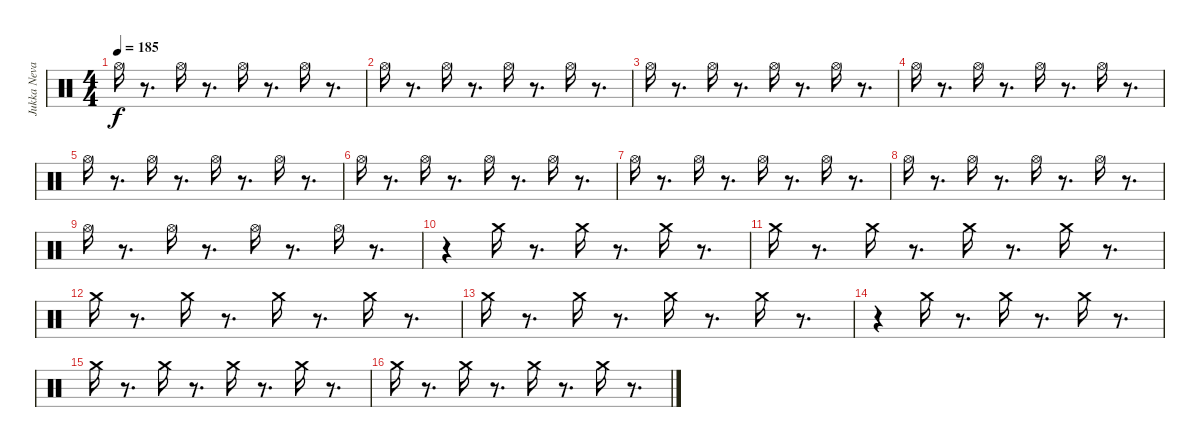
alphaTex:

\track ("Jukka Nevalinen" "Jukka Neva") {instrument percussion}
\staff {score}
\articulation defaults
\ts (4 4)
\tempo 185
\clef neutral
\ks c "Hi-Hat (open)".16{dy f volume 9}
r.8{d} "Hi-Hat (open)".16{volume 9} r.8{d} "Hi-Hat (open)".16{volume 9} r.8{d} "Hi-Hat (open)".16{volume 8} r.8{d} |
"Hi-Hat (open)".16{volume 8} r.8{d} "Hi-Hat (open)".16{volume 8} r.8{d} "Hi-Hat (open)".16{volume 8} r.8{d} "Hi-Hat (open)".16{volume 8} r.8{d} |
"Hi-Hat (open)".16{volume 8} r.8{d} "Hi-Hat (open)".16{volume 8} r.8{d} "Hi-Hat (open)".16{volume 8} r.8{d} "Hi-Hat (open)".16{volume 8} r.8{d} |
"Hi-Hat (open)".16{volume 7} r.8{d} "Hi-Hat (open)".16{volume 7} r.8{d} "Hi-Hat (open)".16{volume 7} r.8{d} "Hi-Hat (open)".16{volume 7} r.8{d} |
"Hi-Hat (open)".16{volume 7} r.8{d} "Hi-Hat (open)".16{volume 7} r.8{d} "Hi-Hat (open)".16{volume 6} r.8{d} "Hi-Hat (open)".16{volume 6} r.8{d} |
"Hi-Hat (open)".16{volume 6} r.8{d} "Hi-Hat (open)".16{volume 6} r.8{d} "Hi-Hat (open)".16{volume 6} r.8{d} "Hi-Hat (open)".16{volume 6} r.8{d} |
"Hi-Hat (open)".16{volume 6} r.8{d} "Hi-Hat (open)".16{volume 6} r.8{d} "Hi-Hat (open)".16{volume 6} r.8{d} "Hi-Hat (open)".16{volume 5} r.8{d} |
"Hi-Hat (open)".16{volume 5} r.8{d} "Hi-Hat (open)".16{volume 5} r.8{d} "Hi-Hat (open)".16{volume 5} r.8{d} "Hi-Hat (open)".16{volume 5} r.8{d} |
"Hi-Hat (open)".16{volume 5} r.8{d} "Hi-Hat (open)".16{volume 5} r.8{d} "Hi-Hat (open)".16{volume 4} r.8{d} "Hi-Hat (open)".16{volume 4} r.8{d} |
r.4 "Crash medium (hit)".16{volume 4} r.8{d} "Crash medium (hit)".16{volume 4} r.8{d} "Crash medium (hit)".16{volume 4} r.8{d} |
"Crash medium (hit)".16{volume 4} r.8{d} "Crash medium (hit)".16{volume 4} r.8{d} "Crash medium (hit)".16{volume 3} r.8{d} "Crash medium (hit)".16{volume 3} r.8{d} |
"Crash medium (hit)".16{volume 3} r.8{d} "Crash medium (hit)".16{volume 3} r.8{d} "Crash medium (hit)".16{volume 3} r.8{d} "Crash medium (hit)".16{volume 3} r.8{d} |
"Crash medium (hit)".16{volume 3} r.8{d} "Crash medium (hit)".16{volume 2} r.8{d} "Crash medium (hit)".16{volume 2} r.8{d} "Crash medium (hit)".16{volume 2} r.8{d} |
r.4 "Crash medium (hit)".16{volume 2} r.8{d} "Crash medium (hit)".16{volume 2} r.8{d} "Crash medium (hit)".16{volume 2} r.8{d} |
"Crash medium (hit)".16{volume 2} r.8{d} "Crash medium (hit)".16{volume 2} r.8{d} "Crash medium (hit)".16{volume 1} r.8{d} "Crash medium (hit)".16{volume 1} r.8{d} |
"Crash medium (hit)".16{volume 1} r.8{d} "Crash medium (hit)".16{volume 1} r.8{d} "Crash medium (hit)".16{volume 1} r.8{d} "Crash medium (hit)".16{volume 1} r.8{d}
